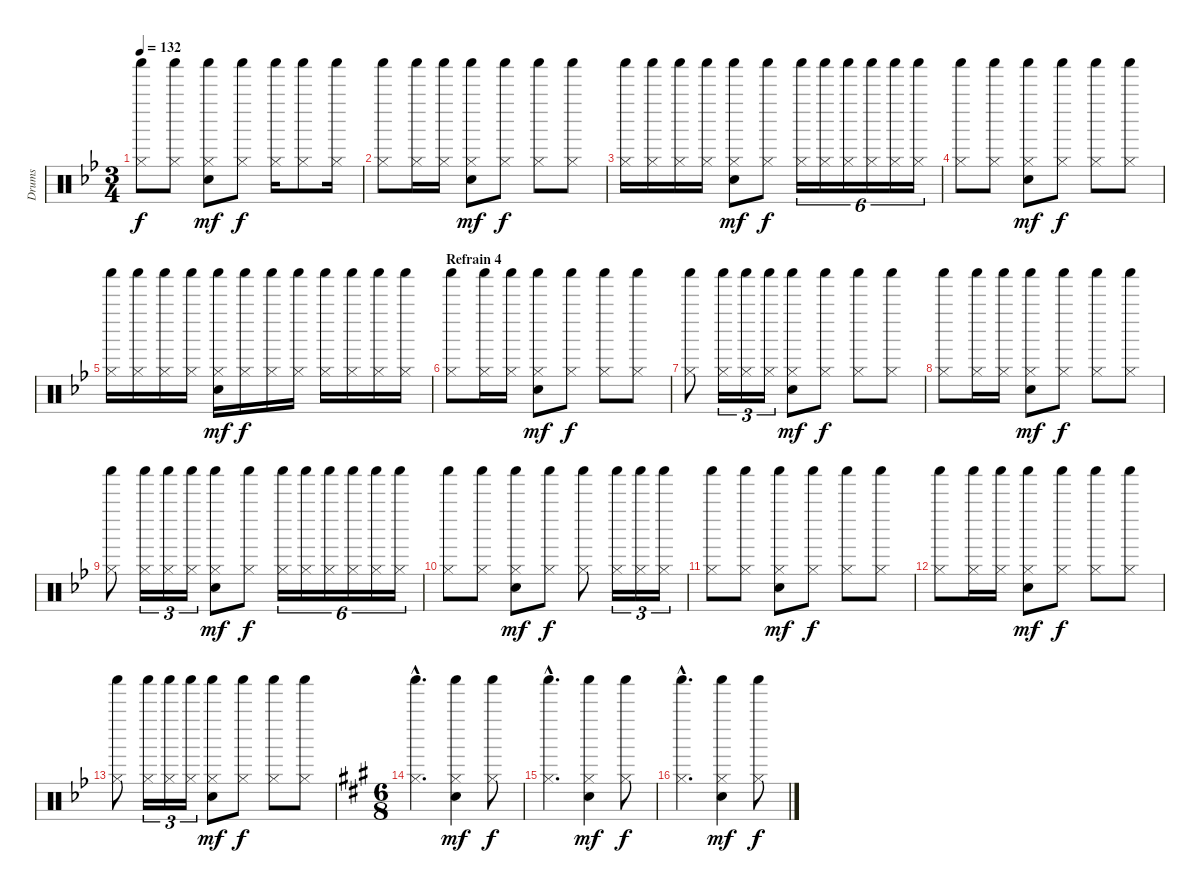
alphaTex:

\track ("Drums" "Drums") {instrument percussion}
\staff {score}
\articulation defaults
\ts (3 4)
\tempo 132
\clef neutral
\ks bb
("Shaker (hit)" "Hi-Hat (closed)").8{dy f} ("Shaker (hit)" "Hi-Hat (closed)").8 ("Shaker (hit)" "Hi-Hat (closed)" "Electric Snare (hit)").8{dy mf} ("Shaker (hit)" "Hi-Hat (closed)").8{dy f} ("Shaker (hit)" "Hi-Hat (closed)").16 ("Shaker (hit)" "Hi-Hat (closed)").8 ("Shaker (hit)" "Hi-Hat (closed)").16 |
("Shaker (hit)" "Hi-Hat (closed)").8 ("Shaker (hit)" "Hi-Hat (closed)").16 ("Shaker (hit)" "Hi-Hat (closed)").16 ("Shaker (hit)" "Hi-Hat (closed)" "Electric Snare (hit)").8{dy mf} ("Shaker (hit)" "Hi-Hat (closed)").8{dy f} ("Shaker (hit)" "Hi-Hat (closed)").8 ("Shaker (hit)" "Hi-Hat (closed)").8 |
("Shaker (hit)" "Hi-Hat (closed)").16 ("Shaker (hit)" "Hi-Hat (closed)").16 ("Shaker (hit)" "Hi-Hat (closed)").16 ("Shaker (hit)" "Hi-Hat (closed)").16 ("Shaker (hit)" "Hi-Hat (closed)" "Electric Snare (hit)").8{dy mf} ("Shaker (hit)" "Hi-Hat (closed)").8{dy f} ("Shaker (hit)" "Hi-Hat (closed)").16{tu (6 4)} ("Shaker (hit)" "Hi-Hat (closed)").16{tu (6 4)} ("Shaker (hit)" "Hi-Hat (closed)").16{tu (6 4)} ("Shaker (hit)" "Hi-Hat (closed)").16{tu (6 4)} ("Shaker (hit)" "Hi-Hat (closed)").16{tu (6 4)} ("Shaker (hit)" "Hi-Hat (closed)").16{tu (6 4)} |
("Shaker (hit)" "Hi-Hat (closed)").8 ("Shaker (hit)" "Hi-Hat (closed)").8 ("Shaker (hit)" "Hi-Hat (closed)" "Electric Snare (hit)").8{dy mf} ("Shaker (hit)" "Hi-Hat (closed)").8{dy f} ("Shaker (hit)" "Hi-Hat (closed)").8 ("Shaker (hit)" "Hi-Hat (closed)").8 |
("Hi-Hat (closed)" "Shaker (hit)").16 ("Hi-Hat (closed)" "Shaker (hit)").16 ("Hi-Hat (closed)" "Shaker (hit)").16 ("Hi-Hat (closed)" "Shaker (hit)").16 ("Hi-Hat (closed)" "Shaker (hit)" "Electric Snare (hit)").16{dy mf} ("Hi-Hat (closed)" "Shaker (hit)").16{dy f} ("Hi-Hat (closed)" "Shaker (hit)").16 ("Hi-Hat (closed)" "Shaker (hit)").16 ("Hi-Hat (closed)" "Shaker (hit)").16 ("Hi-Hat (closed)" "Shaker (hit)").16 ("Hi-Hat (closed)" "Shaker (hit)").16 ("Hi-Hat (closed)" "Shaker (hit)").16 |
\section ("" "Refrain 4")
("Shaker (hit)" "Hi-Hat (closed)").8 ("Shaker (hit)" "Hi-Hat (closed)").16 ("Shaker (hit)" "Hi-Hat (closed)").16 ("Shaker (hit)" "Hi-Hat (closed)" "Electric Snare (hit)").8{dy mf} ("Shaker (hit)" "Hi-Hat (closed)").8{dy f} ("Shaker (hit)" "Hi-Hat (closed)").8 ("Shaker (hit)" "Hi-Hat (closed)").8 |
("Shaker (hit)" "Hi-Hat (closed)").8 ("Shaker (hit)" "Hi-Hat (closed)").16{tu (3 2)} ("Shaker (hit)" "Hi-Hat (closed)").16{tu (3 2)} ("Shaker (hit)" "Hi-Hat (closed)").16{tu (3 2)} ("Shaker (hit)" "Hi-Hat (closed)" "Electric Snare (hit)").8{dy mf} ("Shaker (hit)" "Hi-Hat (closed)").8{dy f} ("Shaker (hit)" "Hi-Hat (closed)").8 ("Shaker (hit)" "Hi-Hat (closed)").8 |
("Shaker (hit)" "Hi-Hat (closed)").8 ("Shaker (hit)" "Hi-Hat (closed)").16 ("Shaker (hit)" "Hi-Hat (closed)").16 ("Shaker (hit)" "Hi-Hat (closed)" "Electric Snare (hit)").8{dy mf} ("Shaker (hit)" "Hi-Hat (closed)").8{dy f} ("Shaker (hit)" "Hi-Hat (closed)").8 ("Shaker (hit)" "Hi-Hat (closed)").8 |
("Shaker (hit)" "Hi-Hat (closed)").8 ("Shaker (hit)" "Hi-Hat (closed)").16{tu (3 2)} ("Shaker (hit)" "Hi-Hat (closed)").16{tu (3 2)} ("Shaker (hit)" "Hi-Hat (closed)").16{tu (3 2)} ("Shaker (hit)" "Hi-Hat (closed)" "Electric Snare (hit)").8{dy mf} ("Shaker (hit)" "Hi-Hat (closed)").8{dy f} ("Shaker (hit)" "Hi-Hat (closed)").16{tu (6 4)} ("Shaker (hit)" "Hi-Hat (closed)").16{tu (6 4)} ("Shaker (hit)" "Hi-Hat (closed)").16{tu (6 4)} ("Shaker (hit)" "Hi-Hat (closed)").16{tu (6 4)} ("Shaker (hit)" "Hi-Hat (closed)").16{tu (6 4)} ("Shaker (hit)" "Hi-Hat (closed)").16{tu (6 4)} |
("Shaker (hit)" "Hi-Hat (closed)").8 ("Shaker (hit)" "Hi-Hat (closed)").8 ("Shaker (hit)" "Hi-Hat (closed)" "Electric Snare (hit)").8{dy mf} ("Shaker (hit)" "Hi-Hat (closed)").8{dy f} ("Shaker (hit)" "Hi-Hat (closed)").8 ("Shaker (hit)" "Hi-Hat (closed)").16{tu (3 2)} ("Shaker (hit)" "Hi-Hat (closed)").16{tu (3 2)} ("Shaker (hit)" "Hi-Hat (closed)").16{tu (3 2)} |
("Shaker (hit)" "Hi-Hat (closed)").8 ("Shaker (hit)" "Hi-Hat (closed)").8 ("Shaker (hit)" "Hi-Hat (closed)" "Electric Snare (hit)").8{dy mf} ("Shaker (hit)" "Hi-Hat (closed)").8{dy f} ("Shaker (hit)" "Hi-Hat (closed)").8 ("Shaker (hit)" "Hi-Hat (closed)").8 |
("Shaker (hit)" "Hi-Hat (closed)").8 ("Shaker (hit)" "Hi-Hat (closed)").16 ("Shaker (hit)" "Hi-Hat (closed)").16 ("Shaker (hit)" "Hi-Hat (closed)" "Electric Snare (hit)").8{dy mf} ("Shaker (hit)" "Hi-Hat (closed)").8{dy f} ("Shaker (hit)" "Hi-Hat (closed)").8 ("Shaker (hit)" "Hi-Hat (closed)").8 |
("Shaker (hit)" "Hi-Hat (closed)").8 ("Shaker (hit)" "Hi-Hat (closed)").16{tu (3 2)} ("Shaker (hit)" "Hi-Hat (closed)").16{tu (3 2)} ("Shaker (hit)" "Hi-Hat (closed)").16{tu (3 2)} ("Shaker (hit)" "Hi-Hat (closed)" "Electric Snare (hit)").8{dy mf} ("Shaker (hit)" "Hi-Hat (closed)").8{dy f} ("Shaker (hit)" "Hi-Hat (closed)").8 ("Shaker (hit)" "Hi-Hat (closed)").8 |
\ts (6 8)
\ks a
("Shaker (hit)"{hac} "Hi-Hat (closed)"{hac}).4{d} ("Shaker (hit)" "Hi-Hat (closed)" "Electric Snare (hit)").4{dy mf} ("Shaker (hit)" "Hi-Hat (closed)").8{dy f} |
("Shaker (hit)"{hac} "Hi-Hat (closed)"{hac}).4{d} ("Shaker (hit)" "Hi-Hat (closed)" "Electric Snare (hit)").4{dy mf} ("Shaker (hit)" "Hi-Hat (closed)").8{dy f} |
("Shaker (hit)"{hac} "Hi-Hat (closed)"{hac}).4{d} ("Shaker (hit)" "Hi-Hat (closed)" "Electric Snare (hit)").4{dy mf} ("Shaker (hit)" "Hi-Hat (closed)").8{dy f}
